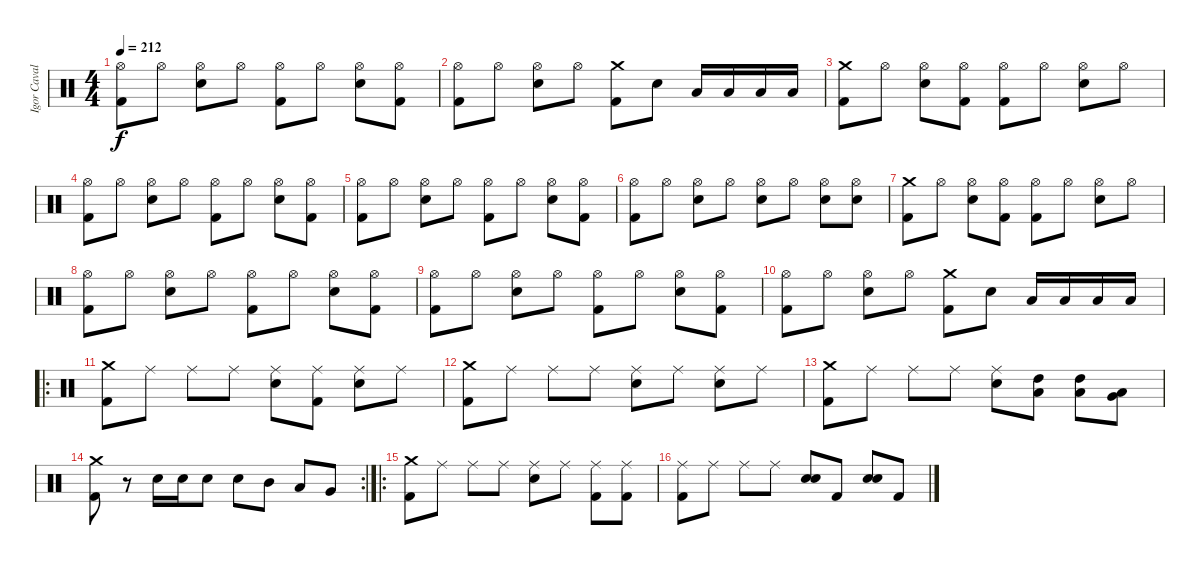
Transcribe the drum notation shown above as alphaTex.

\track ("Igor Cavalera" "Igor Caval") {instrument percussion}
\staff {score}
\articulation defaults
\ts (4 4)
\tempo 212
\clef neutral
\ks c
("Kick (hit) 2" "Hi-Hat (open)").8{dy f} "Hi-Hat (open)".8 ("Snare (hit) 2" "Hi-Hat (open)").8 "Hi-Hat (open)".8 ("Kick (hit) 2" "Hi-Hat (open)").8 "Hi-Hat (open)".8 ("Snare (hit) 2" "Hi-Hat (open)").8 ("Kick (hit) 2" "Hi-Hat (open)").8 |
("Kick (hit) 2" "Hi-Hat (open)").8 "Hi-Hat (open)".8 ("Snare (hit) 2" "Hi-Hat (open)").8 "Hi-Hat (open)".8 ("Kick (hit) 2" "Crash medium (hit)").8 "Snare (hit) 2".8 "Low Tom (hit)".16 "Low Tom (hit)".16 "Low Tom (hit)".16 "Low Tom (hit)".16 |
("Crash medium (hit)" "Kick (hit) 2").8 "Hi-Hat (open)".8 ("Snare (hit) 2" "Hi-Hat (open)").8 ("Kick (hit) 2" "Hi-Hat (open)").8 ("Kick (hit) 2" "Hi-Hat (open)").8 "Hi-Hat (open)".8 ("Snare (hit) 2" "Hi-Hat (open)").8 "Hi-Hat (open)".8 |
("Kick (hit) 2" "Hi-Hat (open)").8 "Hi-Hat (open)".8 ("Snare (hit) 2" "Hi-Hat (open)").8 "Hi-Hat (open)".8 ("Kick (hit) 2" "Hi-Hat (open)").8 "Hi-Hat (open)".8 ("Snare (hit) 2" "Hi-Hat (open)").8 ("Kick (hit) 2" "Hi-Hat (open)").8 |
("Kick (hit) 2" "Hi-Hat (open)").8 "Hi-Hat (open)".8 ("Snare (hit) 2" "Hi-Hat (open)").8 "Hi-Hat (open)".8 ("Kick (hit) 2" "Hi-Hat (open)").8 "Hi-Hat (open)".8 ("Snare (hit) 2" "Hi-Hat (open)").8 ("Kick (hit) 2" "Hi-Hat (open)").8 |
("Kick (hit) 2" "Hi-Hat (open)").8 "Hi-Hat (open)".8 ("Snare (hit) 2" "Hi-Hat (open)").8 "Hi-Hat (open)".8 ("Snare (hit) 2" "Hi-Hat (open)").8 "Hi-Hat (open)".8 ("Snare (hit) 2" "Hi-Hat (open)").8 ("Snare (hit) 2" "Hi-Hat (open)").8 |
("Crash medium (hit)" "Kick (hit) 2").8 "Hi-Hat (open)".8 ("Snare (hit) 2" "Hi-Hat (open)").8 ("Kick (hit) 2" "Hi-Hat (open)").8 ("Kick (hit) 2" "Hi-Hat (open)").8 "Hi-Hat (open)".8 ("Snare (hit) 2" "Hi-Hat (open)").8 "Hi-Hat (open)".8 |
("Kick (hit) 2" "Hi-Hat (open)").8 "Hi-Hat (open)".8 ("Snare (hit) 2" "Hi-Hat (open)").8 "Hi-Hat (open)".8 ("Kick (hit) 2" "Hi-Hat (open)").8 "Hi-Hat (open)".8 ("Snare (hit) 2" "Hi-Hat (open)").8 ("Kick (hit) 2" "Hi-Hat (open)").8 |
("Kick (hit) 2" "Hi-Hat (open)").8 "Hi-Hat (open)".8 ("Snare (hit) 2" "Hi-Hat (open)").8 "Hi-Hat (open)".8 ("Kick (hit) 2" "Hi-Hat (open)").8 "Hi-Hat (open)".8 ("Snare (hit) 2" "Hi-Hat (open)").8 ("Kick (hit) 2" "Hi-Hat (open)").8 |
("Kick (hit) 2" "Hi-Hat (open)").8 "Hi-Hat (open)".8 ("Snare (hit) 2" "Hi-Hat (open)").8 "Hi-Hat (open)".8 ("Kick (hit) 2" "Crash medium (hit)").8 "Snare (hit) 2".8 "Low Tom (hit)".16 "Low Tom (hit)".16 "Low Tom (hit)".16 "Low Tom (hit)".16 |
\ro
("Crash medium (hit)" "Kick (hit) 2").8 "Ride (middle)".8 "Ride (middle)".8 "Ride (middle)".8 ("Snare (hit) 2" "Ride (middle)").8 ("Kick (hit) 2" "Ride (middle)").8 ("Snare (hit) 2" "Ride (middle)").8 "Ride (middle)".8 |
("Kick (hit) 2" "Crash medium (hit)").8 "Ride (middle)".8 "Ride (middle)".8 "Ride (middle)".8 ("Snare (hit) 2" "Ride (middle)").8 "Ride (middle)".8 ("Snare (hit) 2" "Ride (middle)").8 "Ride (middle)".8 |
("Kick (hit) 2" "Crash medium (hit)").8 "Ride (middle)".8 "Ride (middle)".8 "Ride (middle)".8 ("Snare (hit) 2" "Ride (middle)").8 ("Low Tom (hit)" "High Tom (hit)").8 ("Low Tom (hit)" "High Tom (hit)").8 ("Very Low Tom (hit)" "Low Tom (hit)").8 |
\rc 2
("Crash medium (hit)" "Kick (hit) 2").8 r.8 "Snare (hit) 2".16 "Snare (hit) 2".16 "Snare (hit) 2".8 "Snare (hit) 2".8 "Mid Tom (hit)".8 "Low Tom (hit)".8 "Very Low Tom (hit)".8 |
\ro
("Crash medium (hit)" "Kick (hit) 2").8 "Ride (middle)".8 "Ride (middle)".8 "Ride (middle)".8 ("Snare (hit) 2" "Ride (middle)").8 "Ride (middle)".8 ("Kick (hit) 2" "Ride (middle)").8 ("Kick (hit) 2" "Ride (middle)").8 |
("Kick (hit) 2" "Ride (middle)").8 "Ride (middle)".8 "Ride (middle)".8 "Ride (middle)".8 ("Snare (hit) 2" "Snare (hit) 2").8 "Kick (hit) 2".8 ("Snare (hit) 2" "Snare (hit) 2").8 "Kick (hit) 2".8
